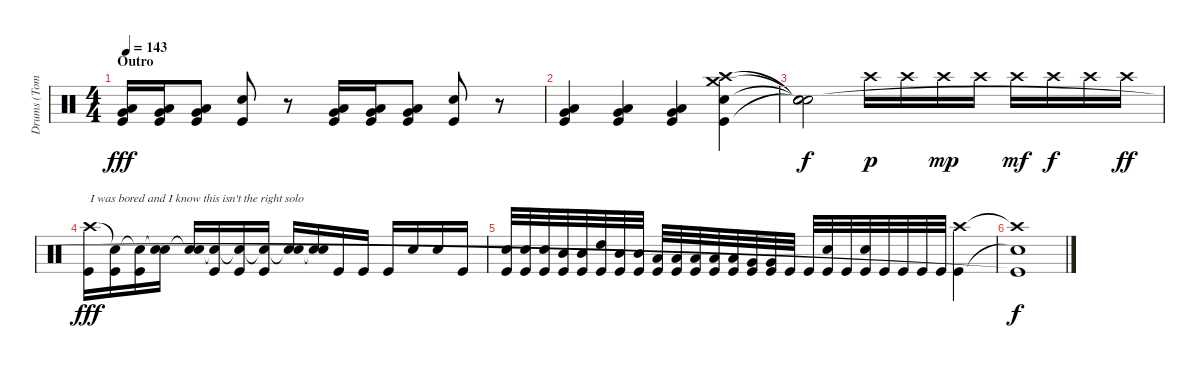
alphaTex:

\track ("Drums (Tommy Clufetos)" "Drums (Tom") {instrument percussion}
\staff {score}
\articulation defaults
\ts (4 4)
\section ("" "Outro")
\tempo 143
\clef neutral
\ks c
("Low Floor Tom (hit)" "Very Low Tom (hit)" "Kick (hit)").16{dy fff} ("Low Floor Tom (hit)" "Very Low Tom (hit)" "Kick (hit)").16 ("Low Floor Tom (hit)" "Very Low Tom (hit)" "Kick (hit)").8 ("Electric Snare (hit)" "Kick (hit)").8 r.8 ("Low Floor Tom (hit)" "Very Low Tom (hit)" "Kick (hit)").16 ("Low Floor Tom (hit)" "Very Low Tom (hit)" "Kick (hit)").16 ("Low Floor Tom (hit)" "Very Low Tom (hit)" "Kick (hit)").8 ("Electric Snare (hit)" "Kick (hit)").8 r.8 |
("Low Floor Tom (hit)" "Very Low Tom (hit)" "Kick (hit)").4 ("Low Floor Tom (hit)" "Very Low Tom (hit)" "Kick (hit)").4 ("Low Floor Tom (hit)" "Very Low Tom (hit)" "Kick (hit)").4 ("Crash high (hit)" "Crash medium (hit)" "Electric Snare (hit)" "Kick (hit)").4 |
("Snare (hit)"{t} "Snare (hit)"{t} "Snare (hit)"{t} "Snare (hit)"{t}).2{dy f} "Crash high (hit)".16{dy p} "Crash high (hit)".16 "Crash high (hit)".16{dy mp} "Crash high (hit)".16 "Crash high (hit)".16{dy mf} "Crash high (hit)".16{dy f} "Crash high (hit)".16 "Crash high (hit)".16{dy ff} |
("Crash high (hit)" "Kick (hit)").16{txt "I was bored and I know this isn't the right solo" dy fff} ("Snare (hit)"{t} "Kick (hit)").16 ("Snare (hit)"{t} "Kick (hit)").16 ("Snare (hit)"{t} "Electric Snare (hit)").16 ("Snare (hit)"{t} "Electric Snare (hit)").16 ("Snare (hit)"{t} "Kick (hit)").16 ("Snare (hit)"{t} "Kick (hit)").16 ("Snare (hit)"{t} "Kick (hit)").16 ("Snare (hit)"{t} "Electric Snare (hit)").16 ("Snare (hit)"{t} "Electric Snare (hit)").16 "Kick (hit)".16 "Kick (hit)".16 "Kick (hit)".16 "Electric Snare (hit)".16 "Electric Snare (hit)".16 "Kick (hit)".16 |
("Electric Snare (hit)" "Kick (hit)").32 ("Electric Snare (hit)" "Kick (hit)").32 ("Electric Snare (hit)" "Kick (hit)").32 ("Mid Tom (hit)" "Kick (hit)").32 ("Mid Tom (hit)" "Kick (hit)").32 ("High Tom (hit)" "Kick (hit)").32 ("Mid Tom (hit)" "Kick (hit)").32 ("Mid Tom (hit)" "Kick (hit)").32 ("Low Tom (hit)" "Kick (hit)").32 ("Low Tom (hit)" "Kick (hit)").32 ("Low Tom (hit)" "Kick (hit)").32 ("Low Floor Tom (hit)" "Kick (hit)").32 ("Low Floor Tom (hit)" "Kick (hit)").32 ("Very Low Tom (hit)" "Kick (hit)").32 ("Very Low Tom (hit)" "Kick (hit)").32 "Kick (hit)".32 "Kick (hit)".32 ("Electric Snare (hit)" "Kick (hit)").32 "Kick (hit)".32 ("Electric Snare (hit)" "Kick (hit)").32 "Kick (hit)".32 "Kick (hit)".32 "Kick (hit)".32 "Kick (hit)".32 ("Crash high (hit)" "Kick (hit)").4 |
("Crash high (hit)"{t} "Electric Snare (hit)"{t} "Kick (hit)"{t}).1{dy f}
